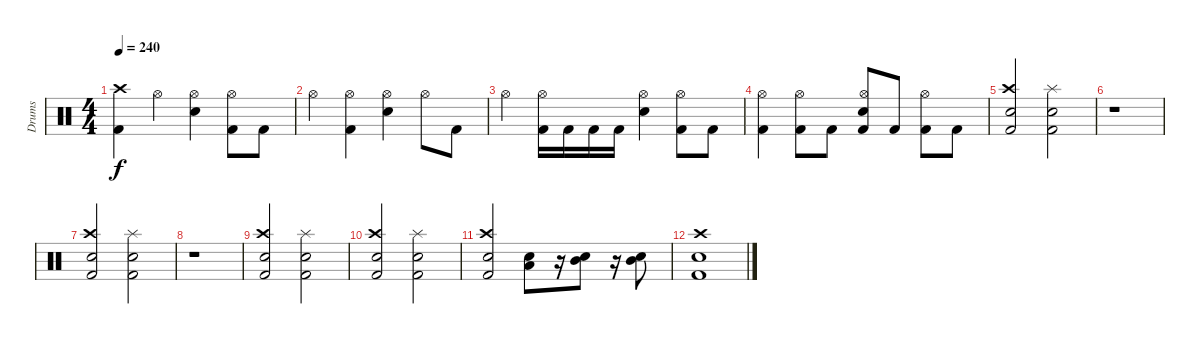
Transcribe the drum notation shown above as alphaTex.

\track ("Drums" "Drums") {instrument percussion}
\staff {score}
\articulation defaults
\ts (4 4)
\tempo 240
\clef neutral
\ks c
("Kick (hit) 2" "Crash high (hit)").4{dy f} "Hi-Hat (open)".4 ("Electric Snare (hit)" "Hi-Hat (open)").4 ("Kick (hit) 2" "Hi-Hat (open)").8 "Kick (hit) 2".8 |
"Hi-Hat (open)".4 ("Kick (hit) 2" "Hi-Hat (open)").4 ("Electric Snare (hit)" "Hi-Hat (open)").4 "Hi-Hat (open)".8 "Kick (hit) 2".8 |
"Hi-Hat (open)".4 ("Kick (hit) 2" "Hi-Hat (open)").16 "Kick (hit) 2".16 "Kick (hit) 2".16 "Kick (hit) 2".16 ("Electric Snare (hit)" "Hi-Hat (open)").4 ("Kick (hit) 2" "Hi-Hat (open)").8 "Kick (hit) 2".8 |
("Kick (hit) 2" "Hi-Hat (open)").4 ("Kick (hit) 2" "Hi-Hat (open)").8 "Kick (hit) 2".8 ("Kick (hit) 2" "Electric Snare (hit)" "Hi-Hat (open)").8 "Kick (hit) 2".8 ("Kick (hit) 2" "Hi-Hat (open)").8 "Kick (hit) 2".8 |
("Kick (hit) 2" "Electric Snare (hit)" "Crash high (hit)").2 ("Kick (hit) 2" "Electric Snare (hit)" "Splash (hit)").2 |
r.1 |
("Kick (hit) 2" "Electric Snare (hit)" "Crash high (hit)").2 ("Kick (hit) 2" "Electric Snare (hit)" "Splash (hit)").2 |
r.1 |
("Kick (hit) 2" "Electric Snare (hit)" "Crash high (hit)").2 ("Kick (hit) 2" "Electric Snare (hit)" "Splash (hit)").2 |
("Kick (hit) 2" "Electric Snare (hit)" "Crash high (hit)").2 ("Kick (hit) 2" "Electric Snare (hit)" "Splash (hit)").2 |
("Kick (hit) 2" "Electric Snare (hit)" "Crash high (hit)").2 ("Electric Snare (hit)" "Low Floor Tom (hit)").8 r.16 ("Electric Snare (hit)" "Mid Tom (hit)").8 r.16 ("Electric Snare (hit)" "Mid Tom (hit)").8 |
("Kick (hit) 2" "Electric Snare (hit)" "Crash high (hit)").1
